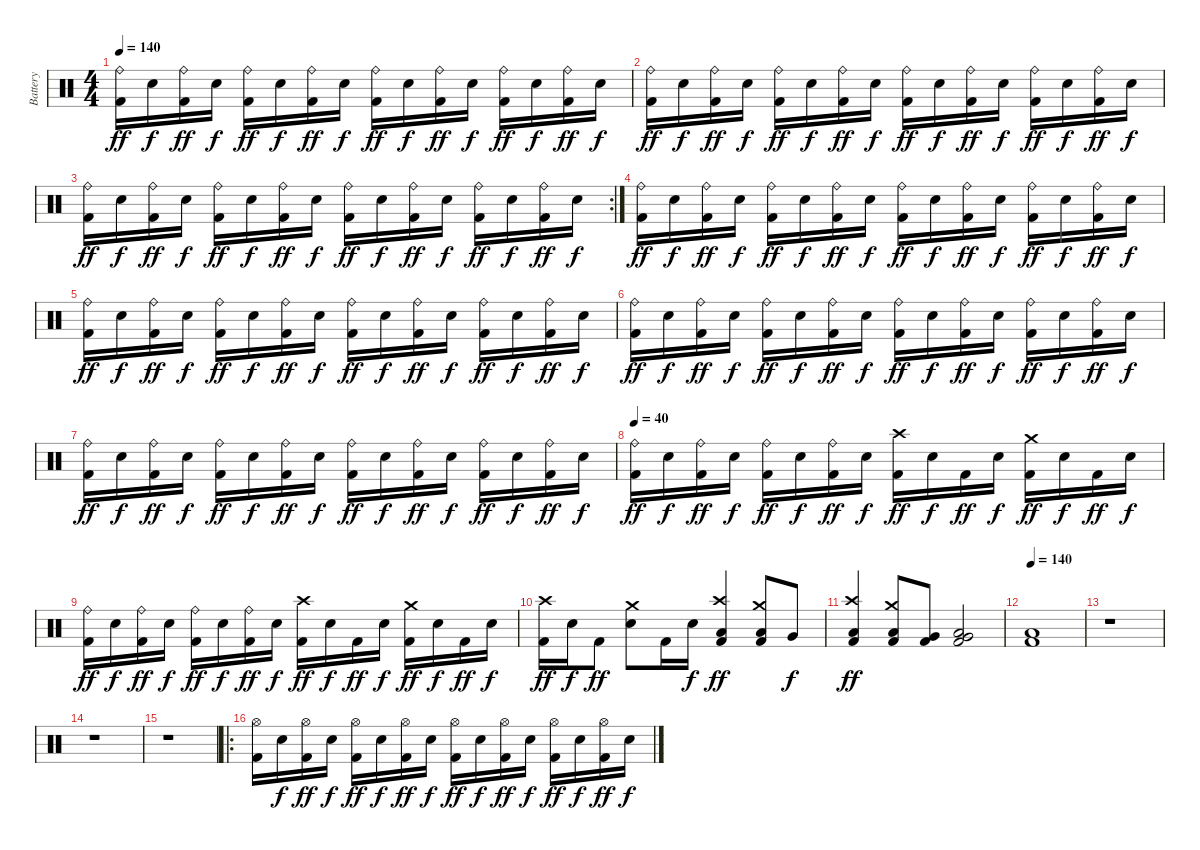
\track ("Battery" "Battery") {instrument percussion}
\staff {score}
\articulation defaults
\ts (4 4)
\tempo 140
\clef neutral
\ks c
("Ride (bell)" "Kick (hit) 2").16{dy ff} "Snare (hit) 2".16{dy f} ("Ride (bell)" "Kick (hit) 2").16{dy ff} "Snare (hit) 2".16{dy f} ("Ride (bell)" "Kick (hit) 2").16{dy ff} "Snare (hit) 2".16{dy f} ("Ride (bell)" "Kick (hit) 2").16{dy ff} "Snare (hit) 2".16{dy f} ("Ride (bell)" "Kick (hit) 2").16{dy ff} "Snare (hit) 2".16{dy f} ("Ride (bell)" "Kick (hit) 2").16{dy ff} "Snare (hit) 2".16{dy f} ("Ride (bell)" "Kick (hit) 2").16{dy ff} "Snare (hit) 2".16{dy f} ("Ride (bell)" "Kick (hit) 2").16{dy ff} "Snare (hit) 2".16{dy f} |
("Ride (bell)" "Kick (hit) 2").16{dy ff} "Snare (hit) 2".16{dy f} ("Ride (bell)" "Kick (hit) 2").16{dy ff} "Snare (hit) 2".16{dy f} ("Ride (bell)" "Kick (hit) 2").16{dy ff} "Snare (hit) 2".16{dy f} ("Ride (bell)" "Kick (hit) 2").16{dy ff} "Snare (hit) 2".16{dy f} ("Ride (bell)" "Kick (hit) 2").16{dy ff} "Snare (hit) 2".16{dy f} ("Ride (bell)" "Kick (hit) 2").16{dy ff} "Snare (hit) 2".16{dy f} ("Ride (bell)" "Kick (hit) 2").16{dy ff} "Snare (hit) 2".16{dy f} ("Ride (bell)" "Kick (hit) 2").16{dy ff} "Snare (hit) 2".16{dy f} |
\rc 2
("Ride (bell)" "Kick (hit) 2").16{dy ff} "Snare (hit) 2".16{dy f} ("Ride (bell)" "Kick (hit) 2").16{dy ff} "Snare (hit) 2".16{dy f} ("Ride (bell)" "Kick (hit) 2").16{dy ff} "Snare (hit) 2".16{dy f} ("Ride (bell)" "Kick (hit) 2").16{dy ff} "Snare (hit) 2".16{dy f} ("Ride (bell)" "Kick (hit) 2").16{dy ff} "Snare (hit) 2".16{dy f} ("Ride (bell)" "Kick (hit) 2").16{dy ff} "Snare (hit) 2".16{dy f} ("Ride (bell)" "Kick (hit) 2").16{dy ff} "Snare (hit) 2".16{dy f} ("Ride (bell)" "Kick (hit) 2").16{dy ff} "Snare (hit) 2".16{dy f} |
("Ride (bell)" "Kick (hit) 2").16{dy ff} "Snare (hit) 2".16{dy f} ("Ride (bell)" "Kick (hit) 2").16{dy ff} "Snare (hit) 2".16{dy f} ("Ride (bell)" "Kick (hit) 2").16{dy ff} "Snare (hit) 2".16{dy f} ("Ride (bell)" "Kick (hit) 2").16{dy ff} "Snare (hit) 2".16{dy f} ("Ride (bell)" "Kick (hit) 2").16{dy ff} "Snare (hit) 2".16{dy f} ("Ride (bell)" "Kick (hit) 2").16{dy ff} "Snare (hit) 2".16{dy f} ("Ride (bell)" "Kick (hit) 2").16{dy ff} "Snare (hit) 2".16{dy f} ("Ride (bell)" "Kick (hit) 2").16{dy ff} "Snare (hit) 2".16{dy f} |
("Ride (bell)" "Kick (hit) 2").16{dy ff} "Snare (hit) 2".16{dy f} ("Ride (bell)" "Kick (hit) 2").16{dy ff} "Snare (hit) 2".16{dy f} ("Ride (bell)" "Kick (hit) 2").16{dy ff} "Snare (hit) 2".16{dy f} ("Ride (bell)" "Kick (hit) 2").16{dy ff} "Snare (hit) 2".16{dy f} ("Ride (bell)" "Kick (hit) 2").16{dy ff} "Snare (hit) 2".16{dy f} ("Ride (bell)" "Kick (hit) 2").16{dy ff} "Snare (hit) 2".16{dy f} ("Ride (bell)" "Kick (hit) 2").16{dy ff} "Snare (hit) 2".16{dy f} ("Ride (bell)" "Kick (hit) 2").16{dy ff} "Snare (hit) 2".16{dy f} |
("Ride (bell)" "Kick (hit) 2").16{dy ff} "Snare (hit) 2".16{dy f} ("Ride (bell)" "Kick (hit) 2").16{dy ff} "Snare (hit) 2".16{dy f} ("Ride (bell)" "Kick (hit) 2").16{dy ff} "Snare (hit) 2".16{dy f} ("Ride (bell)" "Kick (hit) 2").16{dy ff} "Snare (hit) 2".16{dy f} ("Ride (bell)" "Kick (hit) 2").16{dy ff} "Snare (hit) 2".16{dy f} ("Ride (bell)" "Kick (hit) 2").16{dy ff} "Snare (hit) 2".16{dy f} ("Ride (bell)" "Kick (hit) 2").16{dy ff} "Snare (hit) 2".16{dy f} ("Ride (bell)" "Kick (hit) 2").16{dy ff} "Snare (hit) 2".16{dy f} |
("Ride (bell)" "Kick (hit) 2").16{dy ff} "Snare (hit) 2".16{dy f} ("Ride (bell)" "Kick (hit) 2").16{dy ff} "Snare (hit) 2".16{dy f} ("Ride (bell)" "Kick (hit) 2").16{dy ff} "Snare (hit) 2".16{dy f} ("Ride (bell)" "Kick (hit) 2").16{dy ff} "Snare (hit) 2".16{dy f} ("Ride (bell)" "Kick (hit) 2").16{dy ff} "Snare (hit) 2".16{dy f} ("Ride (bell)" "Kick (hit) 2").16{dy ff} "Snare (hit) 2".16{dy f} ("Ride (bell)" "Kick (hit) 2").16{dy ff} "Snare (hit) 2".16{dy f} ("Ride (bell)" "Kick (hit) 2").16{dy ff} "Snare (hit) 2".16{dy f} |
\tempo 40
("Ride (bell)" "Kick (hit) 2").16{dy ff} "Snare (hit) 2".16{dy f} ("Ride (bell)" "Kick (hit) 2").16{dy ff} "Snare (hit) 2".16{dy f} ("Ride (bell)" "Kick (hit) 2").16{dy ff} "Snare (hit) 2".16{dy f} ("Ride (bell)" "Kick (hit) 2").16{dy ff} "Snare (hit) 2".16{dy f} ("Crash high (hit)" "Kick (hit) 2").16{dy ff} "Snare (hit) 2".16{dy f} "Kick (hit) 2".16{dy ff} "Snare (hit) 2".16{dy f} ("Crash medium (hit)" "Kick (hit) 2").16{dy ff} "Snare (hit) 2".16{dy f} "Kick (hit) 2".16{dy ff} "Snare (hit) 2".16{dy f} |
("Ride (bell)" "Kick (hit) 2").16{dy ff} "Snare (hit) 2".16{dy f} ("Ride (bell)" "Kick (hit) 2").16{dy ff} "Snare (hit) 2".16{dy f} ("Ride (bell)" "Kick (hit) 2").16{dy ff} "Snare (hit) 2".16{dy f} ("Ride (bell)" "Kick (hit) 2").16{dy ff} "Snare (hit) 2".16{dy f} ("Crash high (hit)" "Kick (hit) 2").16{dy ff} "Snare (hit) 2".16{dy f} "Kick (hit) 2".16{dy ff} "Snare (hit) 2".16{dy f} ("Crash medium (hit)" "Kick (hit) 2").16{dy ff} "Snare (hit) 2".16{dy f} "Kick (hit) 2".16{dy ff} "Snare (hit) 2".16{dy f} |
("Crash high (hit)" "Kick (hit) 2").16{dy ff} "Snare (hit) 2".16{dy f} "Kick (hit) 2".8{dy ff} ("Crash medium (hit)" "Snare (hit) 2").8 "Kick (hit) 2".16 "Snare (hit) 2".16{dy f} ("Crash high (hit)" "Low Tom (hit)" "Kick (hit) 2").4{dy ff} ("Crash medium (hit)" "Low Tom (hit)" "Kick (hit) 2").8 "Very Low Tom (hit)".8{dy f} |
("Crash high (hit)" "Low Tom (hit)" "Kick (hit) 2").4{dy ff} ("Crash medium (hit)" "Low Tom (hit)" "Kick (hit) 2").8 ("Very Low Tom (hit)" "Kick (hit) 2").8 ("Low Tom (hit)" "Very Low Tom (hit)" "Kick (hit) 2").2 |
\tempo 140
("Low Floor Tom (hit)" "Kick (hit) 2").1 |
r.1 |
r.1 |
r.1 |
\ro
("Hi-Hat (open)" "Kick (hit) 2").16 "Snare (hit) 2".16{dy f} ("Hi-Hat (open)" "Kick (hit) 2").16{dy ff} "Snare (hit) 2".16{dy f} ("Hi-Hat (open)" "Kick (hit) 2").16{dy ff} "Snare (hit) 2".16{dy f} ("Hi-Hat (open)" "Kick (hit) 2").16{dy ff} "Snare (hit) 2".16{dy f} ("Hi-Hat (open)" "Kick (hit) 2").16{dy ff} "Snare (hit) 2".16{dy f} ("Hi-Hat (open)" "Kick (hit) 2").16{dy ff} "Snare (hit) 2".16{dy f} ("Hi-Hat (open)" "Kick (hit) 2").16{dy ff} "Snare (hit) 2".16{dy f} ("Hi-Hat (open)" "Kick (hit) 2").16{dy ff} "Snare (hit) 2".16{dy f}
